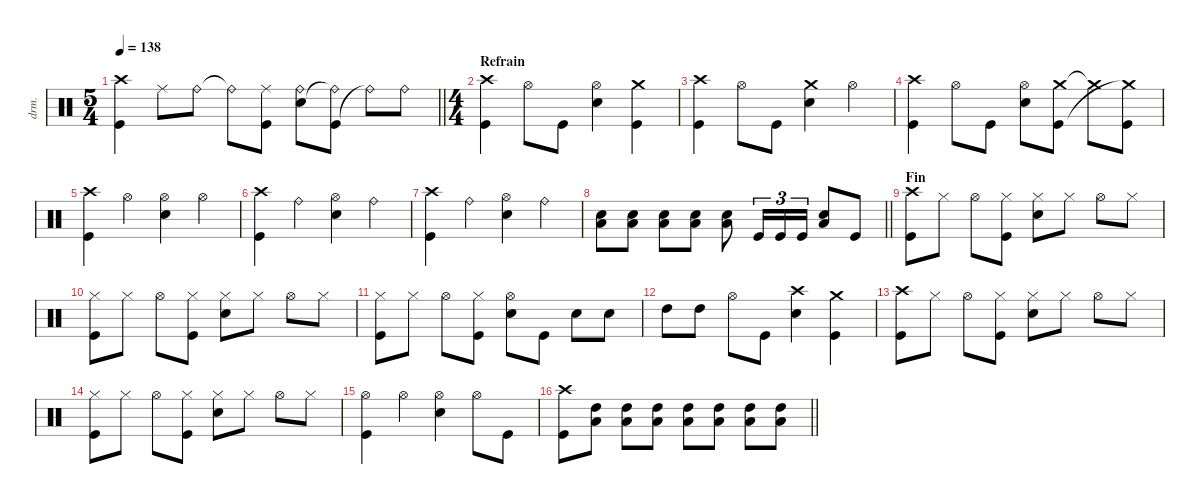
\defaultSystemsLayout 4
\hideDynamics
\bracketExtendMode nobrackets
\track ("Percussions" "drm.") {instrument percussion}
\staff {score}
\articulation defaults
\ts (5 4)
\tempo 138
\clef neutral
\barLineRight lightlight
\ks aminor
("Crash high (hit)" "Kick (hit)").4{dy f} "Ride (middle)".8 "Ride (bell)".8 "Ride (bell)"{t}.8 ("Ride (middle)" "Kick (hit)").8 ("Ride (bell)" "Snare (hit) 2").8 ("Kick (hit)" "Ride (bell)"{t}).8 "Ride (bell)"{t}.8 "Ride (bell)".8 |
\ts (4 4)
\beaming (8 2 2 2 2)
\section ("" "Refrain")
("Kick (hit)" "Crash high (hit)").4 "Hi-Hat (open)".8 "Kick (hit)".8 ("Hi-Hat (open)" "Snare (hit) 2").4 ("Crash medium (hit)" "Kick (hit)").4 |
("Kick (hit)" "Crash high (hit)").4 "Hi-Hat (open)".8 "Kick (hit)".8 ("Crash medium (hit)" "Snare (hit) 2").4 "Hi-Hat (open)".4 |
("Kick (hit)" "Crash high (hit)").4 "Hi-Hat (open)".8 "Kick (hit)".8 ("Hi-Hat (open)" "Snare (hit) 2").8 ("Crash medium (hit)" "Kick (hit)").8 "Crash medium (hit)"{t}.8 ("Kick (hit)" "Crash medium (hit)"{t}).8 |
("Kick (hit)" "Crash high (hit)").4 "Hi-Hat (open)".4 ("Hi-Hat (open)" "Snare (hit) 2").4 "Hi-Hat (open)".4 |
("Kick (hit)" "Crash high (hit)").4 "Ride (bell)".4 ("Hi-Hat (open)" "Snare (hit) 2").4 "Ride (bell)".4 |
("Kick (hit)" "Crash high (hit)").4 "Ride (bell)".4 ("Hi-Hat (open)" "Snare (hit) 2").4 "Ride (bell)".4 |
\barLineRight lightlight
("Snare (hit) 2" "Low Tom (hit)").8 ("Snare (hit) 2" "Low Tom (hit)").8 ("Snare (hit) 2" "Low Tom (hit)").8 ("Snare (hit) 2" "Low Tom (hit)").8 ("Snare (hit) 2" "Low Tom (hit)").8 "Kick (hit)".16{tu (3 2)} "Kick (hit)".16{tu (3 2)} "Kick (hit)".16{tu (3 2)} ("Snare (hit) 2" "Low Tom (hit)").8 "Kick (hit)".8 |
\section ("" "Fin")
("Crash high (hit)" "Kick (hit)").8 "Hi-Hat (closed)".8 "Hi-Hat (open)".8 ("Hi-Hat (closed)" "Kick (hit)").8 ("Hi-Hat (closed)" "Snare (hit) 2").8 "Hi-Hat (closed)".8 "Hi-Hat (open)".8 "Hi-Hat (closed)".8 |
("Hi-Hat (closed)" "Kick (hit)").8 "Hi-Hat (closed)".8 "Hi-Hat (open)".8 ("Hi-Hat (closed)" "Kick (hit)").8 ("Hi-Hat (closed)" "Snare (hit) 2").8 "Hi-Hat (closed)".8 "Hi-Hat (open)".8 "Hi-Hat (closed)".8 |
("Hi-Hat (closed)" "Kick (hit)").8 "Hi-Hat (closed)".8 "Hi-Hat (open)".8 ("Hi-Hat (closed)" "Kick (hit)").8 ("Hi-Hat (open)" "Snare (hit) 2").8 "Kick (hit)".8 "Snare (hit) 2".8 "Snare (hit) 2".8 |
"High Tom (hit)".8 "High Tom (hit)".8 "Hi-Hat (open)".8 "Kick (hit)".8 ("Crash high (hit)" "Snare (hit) 2").4 ("Crash medium (hit)" "Kick (hit)").4 |
("Crash high (hit)" "Kick (hit)").8 "Hi-Hat (closed)".8 "Hi-Hat (open)".8 ("Hi-Hat (closed)" "Kick (hit)").8 ("Hi-Hat (closed)" "Snare (hit) 2").8 "Hi-Hat (closed)".8 "Hi-Hat (open)".8 "Hi-Hat (closed)".8 |
("Hi-Hat (closed)" "Kick (hit)").8 "Hi-Hat (closed)".8 "Hi-Hat (open)".8 ("Hi-Hat (closed)" "Kick (hit)").8 ("Hi-Hat (closed)" "Snare (hit) 2").8 "Hi-Hat (closed)".8 "Hi-Hat (open)".8 "Hi-Hat (closed)".8 |
("Hi-Hat (open)" "Kick (hit)").4 "Hi-Hat (open)".4 ("Hi-Hat (open)" "Snare (hit) 2").4 "Hi-Hat (open)".8 "Kick (hit)".8 |
\barLineRight lightlight
("Crash high (hit)" "Kick (hit)").8 ("High Tom (hit)" "Low Tom (hit)").8 ("High Tom (hit)" "Low Tom (hit)").8 ("High Tom (hit)" "Low Tom (hit)").8 ("High Tom (hit)" "Low Tom (hit)").8 ("High Tom (hit)" "Low Tom (hit)").8 ("High Tom (hit)" "Low Tom (hit)").8 ("High Tom (hit)" "Low Tom (hit)").8
